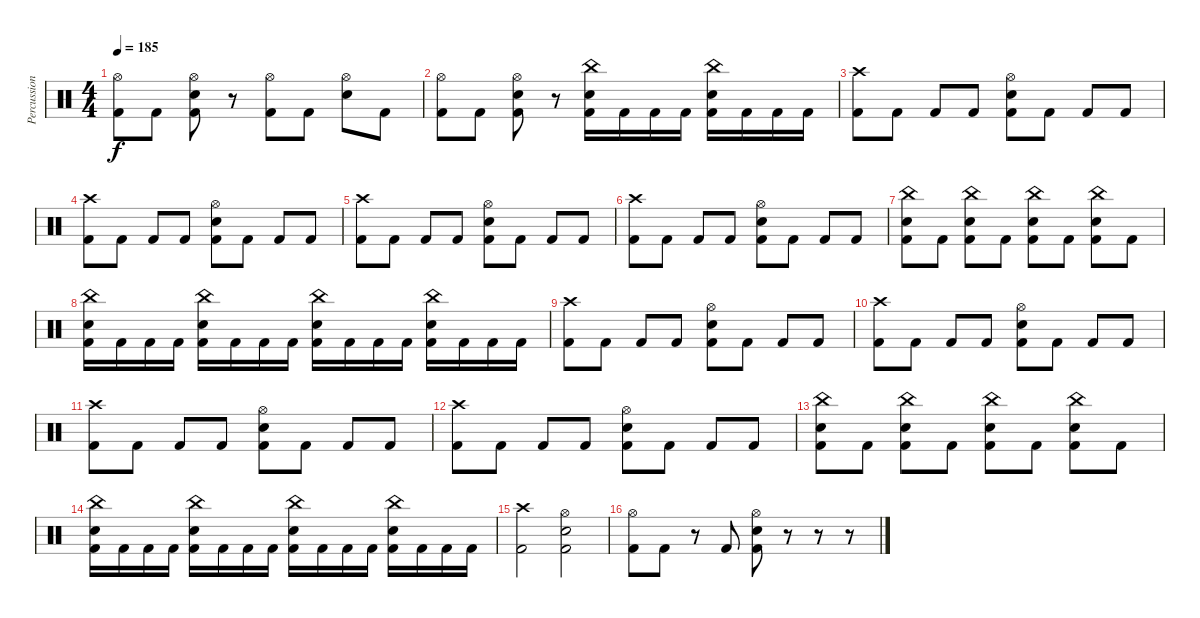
\track ("Percussion" "Percussion") {instrument percussion}
\staff {score}
\articulation defaults
\ts (4 4)
\tempo 185
\clef neutral
\ks c
("Hi-Hat (open)" "Kick (hit) 2").8{dy f} "Kick (hit) 2".8 ("Snare (hit) 2" "Hi-Hat (open)" "Kick (hit) 2").8 r.8 ("Hi-Hat (open)" "Kick (hit) 2").8 "Kick (hit) 2".8 ("Snare (hit) 2" "Hi-Hat (open)").8 "Kick (hit) 2".8 |
("Hi-Hat (open)" "Kick (hit) 2").8 "Kick (hit) 2".8 ("Snare (hit) 2" "Hi-Hat (open)" "Kick (hit) 2").8 r.8 ("Snare (hit) 2" "China (hit)" "Kick (hit) 2").16 "Kick (hit) 2".16 "Kick (hit) 2".16 "Kick (hit) 2".16 ("Snare (hit) 2" "China (hit)" "Kick (hit) 2").16 "Kick (hit) 2".16 "Kick (hit) 2".16 "Kick (hit) 2".16 |
("Crash high (hit)" "Kick (hit) 2").8 "Kick (hit) 2".8 "Kick (hit) 2".8 "Kick (hit) 2".8 ("Snare (hit) 2" "Hi-Hat (open)" "Kick (hit) 2").8 "Kick (hit) 2".8 "Kick (hit) 2".8 "Kick (hit) 2".8 |
("Crash high (hit)" "Kick (hit) 2").8 "Kick (hit) 2".8 "Kick (hit) 2".8 "Kick (hit) 2".8 ("Snare (hit) 2" "Hi-Hat (open)" "Kick (hit) 2").8 "Kick (hit) 2".8 "Kick (hit) 2".8 "Kick (hit) 2".8 |
("Crash high (hit)" "Kick (hit) 2").8 "Kick (hit) 2".8 "Kick (hit) 2".8 "Kick (hit) 2".8 ("Snare (hit) 2" "Hi-Hat (open)" "Kick (hit) 2").8 "Kick (hit) 2".8 "Kick (hit) 2".8 "Kick (hit) 2".8 |
("Crash high (hit)" "Kick (hit) 2").8 "Kick (hit) 2".8 "Kick (hit) 2".8 "Kick (hit) 2".8 ("Snare (hit) 2" "Hi-Hat (open)" "Kick (hit) 2").8 "Kick (hit) 2".8 "Kick (hit) 2".8 "Kick (hit) 2".8 |
("Snare (hit) 2" "China (hit)" "Kick (hit) 2").8 "Kick (hit) 2".8 ("Snare (hit) 2" "China (hit)" "Kick (hit) 2").8 "Kick (hit) 2".8 ("Snare (hit) 2" "China (hit)" "Kick (hit) 2").8 "Kick (hit) 2".8 ("Snare (hit) 2" "China (hit)" "Kick (hit) 2").8 "Kick (hit) 2".8 |
("Snare (hit) 2" "China (hit)" "Kick (hit) 2").16 "Kick (hit) 2".16 "Kick (hit) 2".16 "Kick (hit) 2".16 ("Snare (hit) 2" "China (hit)" "Kick (hit) 2").16 "Kick (hit) 2".16 "Kick (hit) 2".16 "Kick (hit) 2".16 ("Snare (hit) 2" "China (hit)" "Kick (hit) 2").16 "Kick (hit) 2".16 "Kick (hit) 2".16 "Kick (hit) 2".16 ("Snare (hit) 2" "China (hit)" "Kick (hit) 2").16 "Kick (hit) 2".16 "Kick (hit) 2".16 "Kick (hit) 2".16 |
("Crash high (hit)" "Kick (hit) 2").8 "Kick (hit) 2".8 "Kick (hit) 2".8 "Kick (hit) 2".8 ("Snare (hit) 2" "Hi-Hat (open)" "Kick (hit) 2").8 "Kick (hit) 2".8 "Kick (hit) 2".8 "Kick (hit) 2".8 |
("Crash high (hit)" "Kick (hit) 2").8 "Kick (hit) 2".8 "Kick (hit) 2".8 "Kick (hit) 2".8 ("Snare (hit) 2" "Hi-Hat (open)" "Kick (hit) 2").8 "Kick (hit) 2".8 "Kick (hit) 2".8 "Kick (hit) 2".8 |
("Crash high (hit)" "Kick (hit) 2").8 "Kick (hit) 2".8 "Kick (hit) 2".8 "Kick (hit) 2".8 ("Snare (hit) 2" "Hi-Hat (open)" "Kick (hit) 2").8 "Kick (hit) 2".8 "Kick (hit) 2".8 "Kick (hit) 2".8 |
("Crash high (hit)" "Kick (hit) 2").8 "Kick (hit) 2".8 "Kick (hit) 2".8 "Kick (hit) 2".8 ("Snare (hit) 2" "Hi-Hat (open)" "Kick (hit) 2").8 "Kick (hit) 2".8 "Kick (hit) 2".8 "Kick (hit) 2".8 |
("Snare (hit) 2" "China (hit)" "Kick (hit) 2").8 "Kick (hit) 2".8 ("Snare (hit) 2" "China (hit)" "Kick (hit) 2").8 "Kick (hit) 2".8 ("Snare (hit) 2" "China (hit)" "Kick (hit) 2").8 "Kick (hit) 2".8 ("Snare (hit) 2" "China (hit)" "Kick (hit) 2").8 "Kick (hit) 2".8 |
("Snare (hit) 2" "China (hit)" "Kick (hit) 2").16 "Kick (hit) 2".16 "Kick (hit) 2".16 "Kick (hit) 2".16 ("Snare (hit) 2" "China (hit)" "Kick (hit) 2").16 "Kick (hit) 2".16 "Kick (hit) 2".16 "Kick (hit) 2".16 ("Snare (hit) 2" "China (hit)" "Kick (hit) 2").16 "Kick (hit) 2".16 "Kick (hit) 2".16 "Kick (hit) 2".16 ("Snare (hit) 2" "China (hit)" "Kick (hit) 2").16 "Kick (hit) 2".16 "Kick (hit) 2".16 "Kick (hit) 2".16 |
("Kick (hit) 2" "Crash high (hit)").2 ("Kick (hit) 2" "Snare (hit) 2" "Hi-Hat (open)").2 |
("Kick (hit) 2" "Hi-Hat (open)").8 "Kick (hit) 2".8 r.8 "Kick (hit) 2".8 ("Kick (hit) 2" "Hi-Hat (open)" "Snare (hit) 2").8 r.8 r.8 r.8
